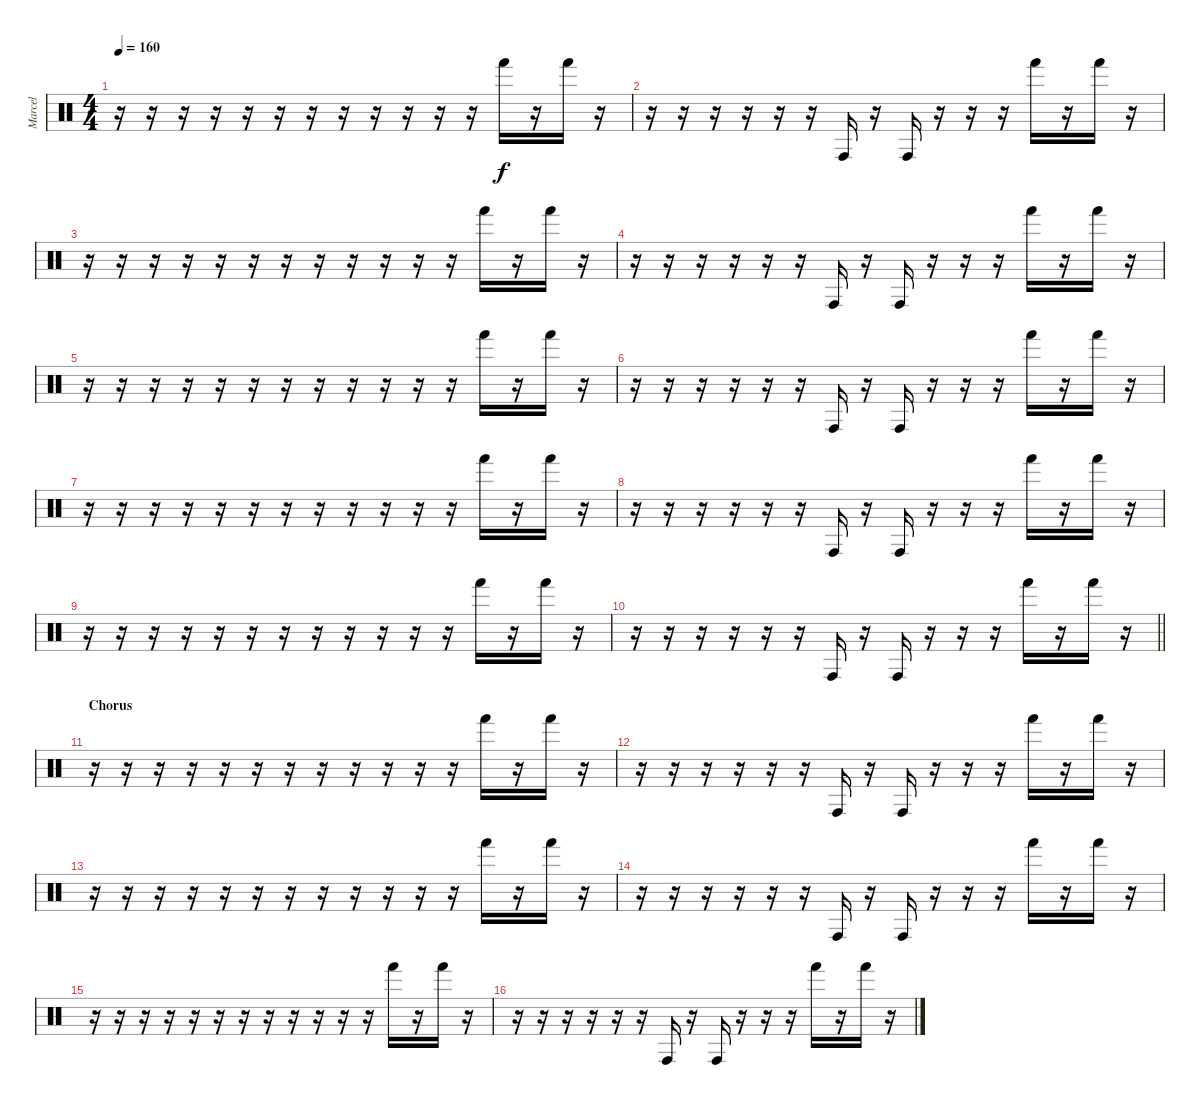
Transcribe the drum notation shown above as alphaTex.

\track ("Marcel" "Marcel") {instrument percussion}
\staff {score}
\articulation defaults
\ts (4 4)
\tempo 160
\clef neutral
\ks c
r.16{dy f} r.16 r.16 r.16 r.16 r.16 r.16 r.16 r.16 r.16 r.16 r.16 "Hand (hit)".16 r.16 "Hand (hit)".16 r.16 |
r.16 r.16 r.16 r.16 r.16 r.16 "Conga high (hit)".16 r.16 "Conga high (hit)".16 r.16 r.16 r.16 "Hand (hit)".16 r.16 "Hand (hit)".16 r.16 |
r.16 r.16 r.16 r.16 r.16 r.16 r.16 r.16 r.16 r.16 r.16 r.16 "Hand (hit)".16 r.16 "Hand (hit)".16 r.16 |
r.16 r.16 r.16 r.16 r.16 r.16 "Conga high (hit)".16 r.16 "Conga high (hit)".16 r.16 r.16 r.16 "Hand (hit)".16 r.16 "Hand (hit)".16 r.16 |
r.16 r.16 r.16 r.16 r.16 r.16 r.16 r.16 r.16 r.16 r.16 r.16 "Hand (hit)".16 r.16 "Hand (hit)".16 r.16 |
r.16 r.16 r.16 r.16 r.16 r.16 "Conga high (hit)".16 r.16 "Conga high (hit)".16 r.16 r.16 r.16 "Hand (hit)".16 r.16 "Hand (hit)".16 r.16 |
r.16 r.16 r.16 r.16 r.16 r.16 r.16 r.16 r.16 r.16 r.16 r.16 "Hand (hit)".16 r.16 "Hand (hit)".16 r.16 |
r.16 r.16 r.16 r.16 r.16 r.16 "Conga high (hit)".16 r.16 "Conga high (hit)".16 r.16 r.16 r.16 "Hand (hit)".16 r.16 "Hand (hit)".16 r.16 |
r.16 r.16 r.16 r.16 r.16 r.16 r.16 r.16 r.16 r.16 r.16 r.16 "Hand (hit)".16 r.16 "Hand (hit)".16 r.16 |
\barLineRight lightlight
r.16 r.16 r.16 r.16 r.16 r.16 "Conga high (hit)".16 r.16 "Conga high (hit)".16 r.16 r.16 r.16 "Hand (hit)".16 r.16 "Hand (hit)".16 r.16 |
\section ("" "Chorus")
r.16 r.16 r.16 r.16 r.16 r.16 r.16 r.16 r.16 r.16 r.16 r.16 "Hand (hit)".16 r.16 "Hand (hit)".16 r.16 |
r.16 r.16 r.16 r.16 r.16 r.16 "Conga high (hit)".16 r.16 "Conga high (hit)".16 r.16 r.16 r.16 "Hand (hit)".16 r.16 "Hand (hit)".16 r.16 |
r.16 r.16 r.16 r.16 r.16 r.16 r.16 r.16 r.16 r.16 r.16 r.16 "Hand (hit)".16 r.16 "Hand (hit)".16 r.16 |
r.16 r.16 r.16 r.16 r.16 r.16 "Conga high (hit)".16 r.16 "Conga high (hit)".16 r.16 r.16 r.16 "Hand (hit)".16 r.16 "Hand (hit)".16 r.16 |
r.16 r.16 r.16 r.16 r.16 r.16 r.16 r.16 r.16 r.16 r.16 r.16 "Hand (hit)".16 r.16 "Hand (hit)".16 r.16 |
r.16 r.16 r.16 r.16 r.16 r.16 "Conga high (hit)".16 r.16 "Conga high (hit)".16 r.16 r.16 r.16 "Hand (hit)".16 r.16 "Hand (hit)".16 r.16
